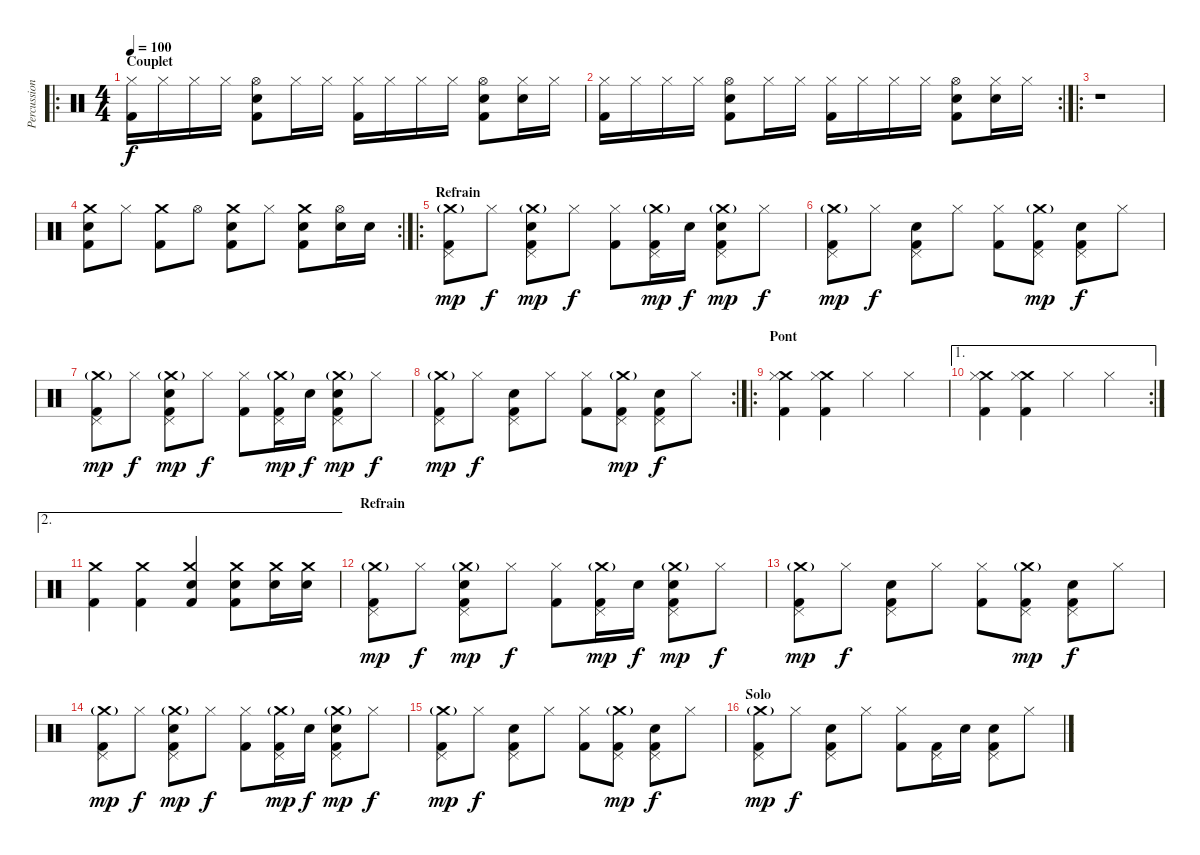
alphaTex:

\track ("Percussions" "Percussion") {instrument percussion}
\staff {score}
\articulation defaults
\ro
\ts (4 4)
\section ("" "Couplet")
\tempo 100
\clef neutral
\ks c
("Hi-Hat (closed)" "Kick (hit) 2").16{dy f} "Hi-Hat (closed)".16 "Hi-Hat (closed)".16 "Hi-Hat (closed)".16 ("Hi-Hat (open)" "Snare (hit) 2" "Kick (hit) 2").8 "Hi-Hat (closed)".16 "Hi-Hat (closed)".16 ("Hi-Hat (closed)" "Kick (hit) 2").16 "Hi-Hat (closed)".16 "Hi-Hat (closed)".16 "Hi-Hat (closed)".16 ("Hi-Hat (open)" "Snare (hit) 2" "Kick (hit) 2").8 ("Hi-Hat (closed)" "Snare (hit) 2").16 "Hi-Hat (closed)".16 |
\rc 2
("Hi-Hat (closed)" "Kick (hit) 2").16 "Hi-Hat (closed)".16 "Hi-Hat (closed)".16 "Hi-Hat (closed)".16 ("Hi-Hat (open)" "Snare (hit) 2" "Kick (hit) 2").8 "Hi-Hat (closed)".16 "Hi-Hat (closed)".16 ("Hi-Hat (closed)" "Kick (hit) 2").16 "Hi-Hat (closed)".16 "Hi-Hat (closed)".16 "Hi-Hat (closed)".16 ("Hi-Hat (open)" "Snare (hit) 2" "Kick (hit) 2").8 ("Hi-Hat (closed)" "Snare (hit) 2").16 "Hi-Hat (closed)".16 |
\ro
r.1 |
\rc 2
("Crash medium (hit)" "Kick (hit) 2" "Electric Snare (hit)").8 "Hi-Hat (closed)".8 ("Crash medium (hit)" "Kick (hit) 2").8 "Hi-Hat (open)".8 ("Crash medium (hit)" "Kick (hit) 2" "Electric Snare (hit)").8 "Hi-Hat (closed)".8 ("Crash medium (hit)" "Kick (hit) 2" "Electric Snare (hit)").8 ("Hi-Hat (open)" "Electric Snare (hit)").16 "Electric Snare (hit)".16 |
\ro
\section ("" "Refrain")
("Crash medium (hit)"{g} "Pedal Hi-Hat (hit)" "Kick (hit) 2").8{dy mp} "Hi-Hat (closed)".8{dy f} ("Crash medium (hit)"{g} "Pedal Hi-Hat (hit)" "Electric Snare (hit)" "Kick (hit) 2").8{dy mp} "Hi-Hat (closed)".8{dy f} ("Hi-Hat (closed)" "Kick (hit) 2").8 ("Crash medium (hit)"{g} "Pedal Hi-Hat (hit)" "Kick (hit) 2").16{dy mp} "Electric Snare (hit)".16{dy f} ("Crash medium (hit)"{g} "Pedal Hi-Hat (hit)" "Electric Snare (hit)" "Kick (hit) 2").8{dy mp} "Hi-Hat (closed)".8{dy f} |
("Crash medium (hit)"{g} "Pedal Hi-Hat (hit)" "Kick (hit) 2").8{dy mp} "Hi-Hat (closed)".8{dy f} ("Pedal Hi-Hat (hit)" "Electric Snare (hit)" "Kick (hit) 2").8 "Hi-Hat (closed)".8 ("Hi-Hat (closed)" "Kick (hit) 2").8 ("Crash medium (hit)"{g} "Pedal Hi-Hat (hit)" "Kick (hit) 2").8{dy mp} ("Pedal Hi-Hat (hit)" "Electric Snare (hit)" "Kick (hit) 2").8{dy f} "Hi-Hat (closed)".8 |
("Crash medium (hit)"{g} "Pedal Hi-Hat (hit)" "Kick (hit) 2").8{dy mp} "Hi-Hat (closed)".8{dy f} ("Crash medium (hit)"{g} "Pedal Hi-Hat (hit)" "Electric Snare (hit)" "Kick (hit) 2").8{dy mp} "Hi-Hat (closed)".8{dy f} ("Hi-Hat (closed)" "Kick (hit) 2").8 ("Crash medium (hit)"{g} "Pedal Hi-Hat (hit)" "Kick (hit) 2").16{dy mp} "Electric Snare (hit)".16{dy f} ("Crash medium (hit)"{g} "Pedal Hi-Hat (hit)" "Electric Snare (hit)" "Kick (hit) 2").8{dy mp} "Hi-Hat (closed)".8{dy f} |
\rc 2
("Crash medium (hit)"{g} "Pedal Hi-Hat (hit)" "Kick (hit) 2").8{dy mp} "Hi-Hat (closed)".8{dy f} ("Pedal Hi-Hat (hit)" "Electric Snare (hit)" "Kick (hit) 2").8 "Hi-Hat (closed)".8 ("Hi-Hat (closed)" "Kick (hit) 2").8 ("Crash medium (hit)"{g} "Pedal Hi-Hat (hit)" "Kick (hit) 2").8{dy mp} ("Pedal Hi-Hat (hit)" "Electric Snare (hit)" "Kick (hit) 2").8{dy f} "Hi-Hat (closed)".8 |
\ro
\section ("" "Pont")
("Crash medium (hit)" "Kick (hit) 2" "Hi-Hat (closed)").4 ("Crash medium (hit)" "Kick (hit) 2" "Hi-Hat (closed)").4 "Hi-Hat (closed)".4 "Hi-Hat (closed)".4 |
\ae 1
\rc 2
("Crash medium (hit)" "Kick (hit) 2" "Hi-Hat (closed)").4 ("Crash medium (hit)" "Kick (hit) 2" "Hi-Hat (closed)").4 "Hi-Hat (closed)".4 "Hi-Hat (closed)".4 |
\ae 2
("Crash medium (hit)" "Kick (hit) 2").4 ("Crash medium (hit)" "Kick (hit) 2").4 ("Crash medium (hit)" "Kick (hit) 2" "Electric Snare (hit)").4 ("Crash medium (hit)" "Kick (hit) 2" "Electric Snare (hit)").8 ("Crash medium (hit)" "Electric Snare (hit)").16 ("Crash medium (hit)" "Electric Snare (hit)").16 |
\section ("" "Refrain")
("Crash medium (hit)"{g} "Pedal Hi-Hat (hit)" "Kick (hit) 2").8{dy mp} "Hi-Hat (closed)".8{dy f} ("Crash medium (hit)"{g} "Pedal Hi-Hat (hit)" "Electric Snare (hit)" "Kick (hit) 2").8{dy mp} "Hi-Hat (closed)".8{dy f} ("Hi-Hat (closed)" "Kick (hit) 2").8 ("Crash medium (hit)"{g} "Pedal Hi-Hat (hit)" "Kick (hit) 2").16{dy mp} "Electric Snare (hit)".16{dy f} ("Crash medium (hit)"{g} "Pedal Hi-Hat (hit)" "Electric Snare (hit)" "Kick (hit) 2").8{dy mp} "Hi-Hat (closed)".8{dy f} |
("Crash medium (hit)"{g} "Pedal Hi-Hat (hit)" "Kick (hit) 2").8{dy mp} "Hi-Hat (closed)".8{dy f} ("Pedal Hi-Hat (hit)" "Electric Snare (hit)" "Kick (hit) 2").8 "Hi-Hat (closed)".8 ("Hi-Hat (closed)" "Kick (hit) 2").8 ("Crash medium (hit)"{g} "Pedal Hi-Hat (hit)" "Kick (hit) 2").8{dy mp} ("Pedal Hi-Hat (hit)" "Electric Snare (hit)" "Kick (hit) 2").8{dy f} "Hi-Hat (closed)".8 |
("Crash medium (hit)"{g} "Pedal Hi-Hat (hit)" "Kick (hit) 2").8{dy mp} "Hi-Hat (closed)".8{dy f} ("Crash medium (hit)"{g} "Pedal Hi-Hat (hit)" "Electric Snare (hit)" "Kick (hit) 2").8{dy mp} "Hi-Hat (closed)".8{dy f} ("Hi-Hat (closed)" "Kick (hit) 2").8 ("Crash medium (hit)"{g} "Pedal Hi-Hat (hit)" "Kick (hit) 2").16{dy mp} "Electric Snare (hit)".16{dy f} ("Crash medium (hit)"{g} "Pedal Hi-Hat (hit)" "Electric Snare (hit)" "Kick (hit) 2").8{dy mp} "Hi-Hat (closed)".8{dy f} |
("Crash medium (hit)"{g} "Pedal Hi-Hat (hit)" "Kick (hit) 2").8{dy mp} "Hi-Hat (closed)".8{dy f} ("Pedal Hi-Hat (hit)" "Electric Snare (hit)" "Kick (hit) 2").8 "Hi-Hat (closed)".8 ("Hi-Hat (closed)" "Kick (hit) 2").8 ("Crash medium (hit)"{g} "Pedal Hi-Hat (hit)" "Kick (hit) 2").8{dy mp} ("Pedal Hi-Hat (hit)" "Electric Snare (hit)" "Kick (hit) 2").8{dy f} "Hi-Hat (closed)".8 |
\section ("" "Solo")
("Crash medium (hit)"{g} "Pedal Hi-Hat (hit)" "Kick (hit) 2").8{dy mp} "Hi-Hat (closed)".8{dy f} ("Pedal Hi-Hat (hit)" "Electric Snare (hit)" "Kick (hit) 2").8 "Hi-Hat (closed)".8 ("Hi-Hat (closed)" "Kick (hit) 2").8 ("Pedal Hi-Hat (hit)" "Kick (hit) 2").16 "Electric Snare (hit)".16 ("Pedal Hi-Hat (hit)" "Electric Snare (hit)" "Kick (hit) 2").8 "Hi-Hat (closed)".8
